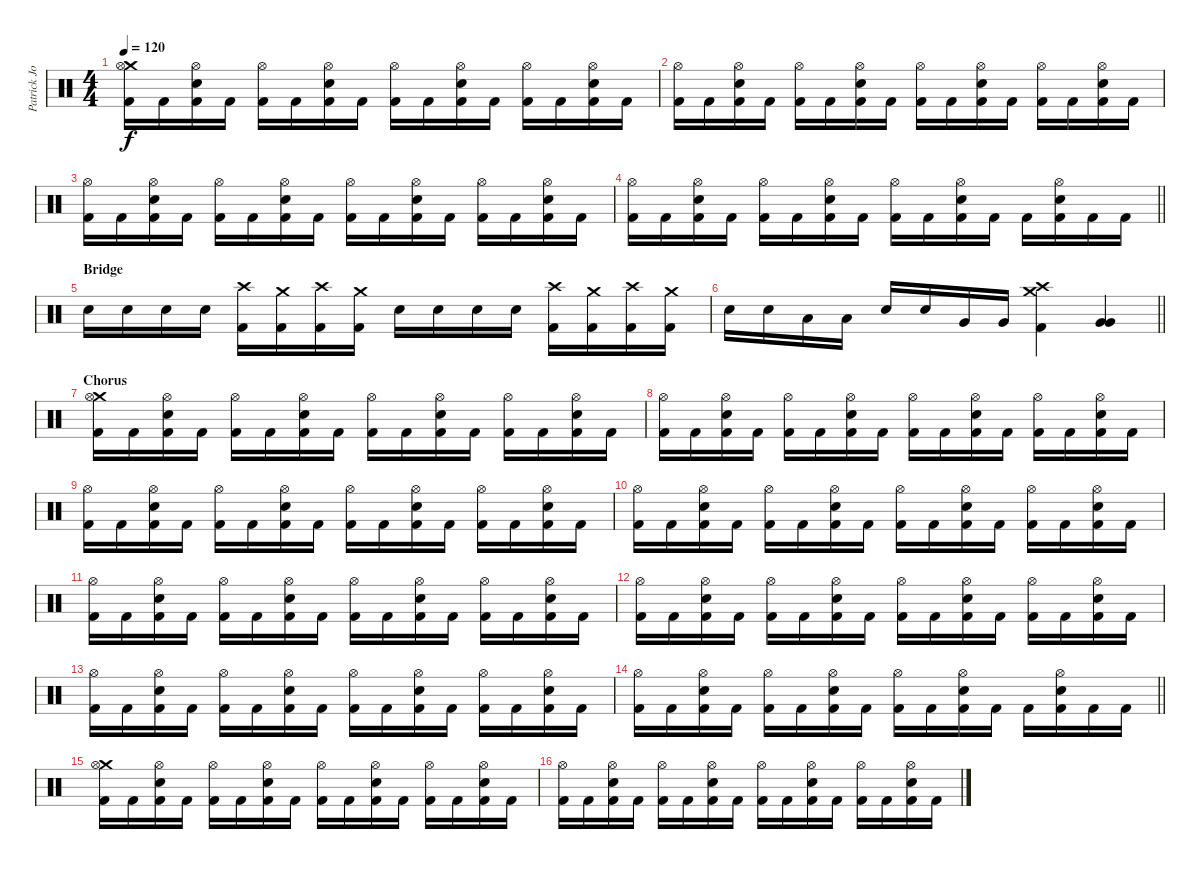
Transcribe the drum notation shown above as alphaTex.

\track ("Patrick Johansson" "Patrick Jo") {instrument percussion}
\staff {score}
\articulation defaults
\ts (4 4)
\tempo 120
\clef neutral
\ks c
("Crash medium (hit)" "Hi-Hat (open)" "Kick (hit) 2").16{dy f} "Kick (hit) 2".16 ("Hi-Hat (open)" "Snare (hit) 2" "Kick (hit) 2").16 "Kick (hit) 2".16 ("Hi-Hat (open)" "Kick (hit) 2").16 "Kick (hit) 2".16 ("Hi-Hat (open)" "Snare (hit) 2" "Kick (hit) 2").16 "Kick (hit) 2".16 ("Hi-Hat (open)" "Kick (hit) 2").16 "Kick (hit) 2".16 ("Hi-Hat (open)" "Snare (hit) 2" "Kick (hit) 2").16 "Kick (hit) 2".16 ("Hi-Hat (open)" "Kick (hit) 2").16 "Kick (hit) 2".16 ("Hi-Hat (open)" "Snare (hit) 2" "Kick (hit) 2").16 "Kick (hit) 2".16 |
("Hi-Hat (open)" "Kick (hit) 2").16 "Kick (hit) 2".16 ("Hi-Hat (open)" "Snare (hit) 2" "Kick (hit) 2").16 "Kick (hit) 2".16 ("Hi-Hat (open)" "Kick (hit) 2").16 "Kick (hit) 2".16 ("Hi-Hat (open)" "Snare (hit) 2" "Kick (hit) 2").16 "Kick (hit) 2".16 ("Hi-Hat (open)" "Kick (hit) 2").16 "Kick (hit) 2".16 ("Hi-Hat (open)" "Snare (hit) 2" "Kick (hit) 2").16 "Kick (hit) 2".16 ("Hi-Hat (open)" "Kick (hit) 2").16 "Kick (hit) 2".16 ("Hi-Hat (open)" "Snare (hit) 2" "Kick (hit) 2").16 "Kick (hit) 2".16 |
("Hi-Hat (open)" "Kick (hit) 2").16 "Kick (hit) 2".16 ("Hi-Hat (open)" "Snare (hit) 2" "Kick (hit) 2").16 "Kick (hit) 2".16 ("Hi-Hat (open)" "Kick (hit) 2").16 "Kick (hit) 2".16 ("Hi-Hat (open)" "Snare (hit) 2" "Kick (hit) 2").16 "Kick (hit) 2".16 ("Hi-Hat (open)" "Kick (hit) 2").16 "Kick (hit) 2".16 ("Hi-Hat (open)" "Snare (hit) 2" "Kick (hit) 2").16 "Kick (hit) 2".16 ("Hi-Hat (open)" "Kick (hit) 2").16 "Kick (hit) 2".16 ("Hi-Hat (open)" "Snare (hit) 2" "Kick (hit) 2").16 "Kick (hit) 2".16 |
\barLineRight lightlight
("Hi-Hat (open)" "Kick (hit) 2").16 "Kick (hit) 2".16 ("Hi-Hat (open)" "Snare (hit) 2" "Kick (hit) 2").16 "Kick (hit) 2".16 ("Hi-Hat (open)" "Kick (hit) 2").16 "Kick (hit) 2".16 ("Hi-Hat (open)" "Snare (hit) 2" "Kick (hit) 2").16 "Kick (hit) 2".16 ("Hi-Hat (open)" "Kick (hit) 2").16 "Kick (hit) 2".16 ("Hi-Hat (open)" "Snare (hit) 2" "Kick (hit) 2").16 "Kick (hit) 2".16 "Kick (hit) 2".16 ("Hi-Hat (open)" "Snare (hit) 2" "Kick (hit) 2").16 "Kick (hit) 2".16 "Kick (hit) 2".16 |
\section ("" "Bridge")
"Snare (hit) 2".16 "Snare (hit) 2".16 "Snare (hit) 2".16 "Snare (hit) 2".16 ("Crash high (hit)" "Kick (hit) 2").16 ("Crash medium (hit)" "Kick (hit) 2").16 ("Crash high (hit)" "Kick (hit) 2").16 ("Crash medium (hit)" "Kick (hit) 2").16 "Snare (hit) 2".16 "Snare (hit) 2".16 "Snare (hit) 2".16 "Snare (hit) 2".16 ("Crash high (hit)" "Kick (hit) 2").16 ("Crash medium (hit)" "Kick (hit) 2").16 ("Crash high (hit)" "Kick (hit) 2").16 ("Crash medium (hit)" "Kick (hit) 2").16 |
\barLineRight lightlight "Snare (hit) 2".16 "Snare (hit) 2".16 "Low Tom (hit)".16 "Low Tom (hit)".16 "Snare (hit) 2".16 "Snare (hit) 2".16 "Very Low Tom (hit)".16 "Very Low Tom (hit)".16
("Crash medium (hit)" "Crash high (hit)" "Kick (hit) 2").4 ("Very Low Tom (hit)" "Very Low Tom (hit)").4 |
\section ("" "Chorus")
("Crash medium (hit)" "Hi-Hat (open)" "Kick (hit) 2").16 "Kick (hit) 2".16 ("Hi-Hat (open)" "Snare (hit) 2" "Kick (hit) 2").16 "Kick (hit) 2".16 ("Hi-Hat (open)" "Kick (hit) 2").16 "Kick (hit) 2".16 ("Hi-Hat (open)" "Snare (hit) 2" "Kick (hit) 2").16 "Kick (hit) 2".16 ("Hi-Hat (open)" "Kick (hit) 2").16 "Kick (hit) 2".16 ("Hi-Hat (open)" "Snare (hit) 2" "Kick (hit) 2").16 "Kick (hit) 2".16 ("Hi-Hat (open)" "Kick (hit) 2").16 "Kick (hit) 2".16 ("Hi-Hat (open)" "Snare (hit) 2" "Kick (hit) 2").16 "Kick (hit) 2".16 |
("Hi-Hat (open)" "Kick (hit) 2").16 "Kick (hit) 2".16 ("Hi-Hat (open)" "Snare (hit) 2" "Kick (hit) 2").16 "Kick (hit) 2".16 ("Hi-Hat (open)" "Kick (hit) 2").16 "Kick (hit) 2".16 ("Hi-Hat (open)" "Snare (hit) 2" "Kick (hit) 2").16 "Kick (hit) 2".16 ("Hi-Hat (open)" "Kick (hit) 2").16 "Kick (hit) 2".16 ("Hi-Hat (open)" "Snare (hit) 2" "Kick (hit) 2").16 "Kick (hit) 2".16 ("Hi-Hat (open)" "Kick (hit) 2").16 "Kick (hit) 2".16 ("Hi-Hat (open)" "Snare (hit) 2" "Kick (hit) 2").16 "Kick (hit) 2".16 |
("Hi-Hat (open)" "Kick (hit) 2").16 "Kick (hit) 2".16 ("Hi-Hat (open)" "Snare (hit) 2" "Kick (hit) 2").16 "Kick (hit) 2".16 ("Hi-Hat (open)" "Kick (hit) 2").16 "Kick (hit) 2".16 ("Hi-Hat (open)" "Snare (hit) 2" "Kick (hit) 2").16 "Kick (hit) 2".16 ("Hi-Hat (open)" "Kick (hit) 2").16 "Kick (hit) 2".16 ("Hi-Hat (open)" "Snare (hit) 2" "Kick (hit) 2").16 "Kick (hit) 2".16 ("Hi-Hat (open)" "Kick (hit) 2").16 "Kick (hit) 2".16 ("Hi-Hat (open)" "Snare (hit) 2" "Kick (hit) 2").16 "Kick (hit) 2".16 |
("Hi-Hat (open)" "Kick (hit) 2").16 "Kick (hit) 2".16 ("Hi-Hat (open)" "Snare (hit) 2" "Kick (hit) 2").16 "Kick (hit) 2".16 ("Hi-Hat (open)" "Kick (hit) 2").16 "Kick (hit) 2".16 ("Hi-Hat (open)" "Snare (hit) 2" "Kick (hit) 2").16 "Kick (hit) 2".16 ("Hi-Hat (open)" "Kick (hit) 2").16 "Kick (hit) 2".16 ("Hi-Hat (open)" "Snare (hit) 2" "Kick (hit) 2").16 "Kick (hit) 2".16 ("Hi-Hat (open)" "Kick (hit) 2").16 "Kick (hit) 2".16 ("Hi-Hat (open)" "Snare (hit) 2" "Kick (hit) 2").16 "Kick (hit) 2".16 |
("Hi-Hat (open)" "Kick (hit) 2").16 "Kick (hit) 2".16 ("Hi-Hat (open)" "Snare (hit) 2" "Kick (hit) 2").16 "Kick (hit) 2".16 ("Hi-Hat (open)" "Kick (hit) 2").16 "Kick (hit) 2".16 ("Hi-Hat (open)" "Snare (hit) 2" "Kick (hit) 2").16 "Kick (hit) 2".16 ("Hi-Hat (open)" "Kick (hit) 2").16 "Kick (hit) 2".16 ("Hi-Hat (open)" "Snare (hit) 2" "Kick (hit) 2").16 "Kick (hit) 2".16 ("Hi-Hat (open)" "Kick (hit) 2").16 "Kick (hit) 2".16 ("Hi-Hat (open)" "Snare (hit) 2" "Kick (hit) 2").16 "Kick (hit) 2".16 |
("Hi-Hat (open)" "Kick (hit) 2").16 "Kick (hit) 2".16 ("Hi-Hat (open)" "Snare (hit) 2" "Kick (hit) 2").16 "Kick (hit) 2".16 ("Hi-Hat (open)" "Kick (hit) 2").16 "Kick (hit) 2".16 ("Hi-Hat (open)" "Snare (hit) 2" "Kick (hit) 2").16 "Kick (hit) 2".16 ("Hi-Hat (open)" "Kick (hit) 2").16 "Kick (hit) 2".16 ("Hi-Hat (open)" "Snare (hit) 2" "Kick (hit) 2").16 "Kick (hit) 2".16 ("Hi-Hat (open)" "Kick (hit) 2").16 "Kick (hit) 2".16 ("Hi-Hat (open)" "Snare (hit) 2" "Kick (hit) 2").16 "Kick (hit) 2".16 |
("Hi-Hat (open)" "Kick (hit) 2").16 "Kick (hit) 2".16 ("Hi-Hat (open)" "Snare (hit) 2" "Kick (hit) 2").16 "Kick (hit) 2".16 ("Hi-Hat (open)" "Kick (hit) 2").16 "Kick (hit) 2".16 ("Hi-Hat (open)" "Snare (hit) 2" "Kick (hit) 2").16 "Kick (hit) 2".16 ("Hi-Hat (open)" "Kick (hit) 2").16 "Kick (hit) 2".16 ("Hi-Hat (open)" "Snare (hit) 2" "Kick (hit) 2").16 "Kick (hit) 2".16 ("Hi-Hat (open)" "Kick (hit) 2").16 "Kick (hit) 2".16 ("Hi-Hat (open)" "Snare (hit) 2" "Kick (hit) 2").16 "Kick (hit) 2".16 |
\barLineRight lightlight
("Hi-Hat (open)" "Kick (hit) 2").16 "Kick (hit) 2".16 ("Hi-Hat (open)" "Snare (hit) 2" "Kick (hit) 2").16 "Kick (hit) 2".16 ("Hi-Hat (open)" "Kick (hit) 2").16 "Kick (hit) 2".16 ("Hi-Hat (open)" "Snare (hit) 2" "Kick (hit) 2").16 "Kick (hit) 2".16 ("Hi-Hat (open)" "Kick (hit) 2").16 "Kick (hit) 2".16 ("Hi-Hat (open)" "Snare (hit) 2" "Kick (hit) 2").16 "Kick (hit) 2".16 "Kick (hit) 2".16 ("Hi-Hat (open)" "Snare (hit) 2" "Kick (hit) 2").16 "Kick (hit) 2".16 "Kick (hit) 2".16 |
("Crash medium (hit)" "Hi-Hat (open)" "Kick (hit) 2").16 "Kick (hit) 2".16 ("Hi-Hat (open)" "Snare (hit) 2" "Kick (hit) 2").16 "Kick (hit) 2".16 ("Hi-Hat (open)" "Kick (hit) 2").16 "Kick (hit) 2".16 ("Hi-Hat (open)" "Snare (hit) 2" "Kick (hit) 2").16 "Kick (hit) 2".16 ("Hi-Hat (open)" "Kick (hit) 2").16 "Kick (hit) 2".16 ("Hi-Hat (open)" "Snare (hit) 2" "Kick (hit) 2").16 "Kick (hit) 2".16 ("Hi-Hat (open)" "Kick (hit) 2").16 "Kick (hit) 2".16 ("Hi-Hat (open)" "Snare (hit) 2" "Kick (hit) 2").16 "Kick (hit) 2".16 |
("Hi-Hat (open)" "Kick (hit) 2").16 "Kick (hit) 2".16 ("Hi-Hat (open)" "Snare (hit) 2" "Kick (hit) 2").16 "Kick (hit) 2".16 ("Hi-Hat (open)" "Kick (hit) 2").16 "Kick (hit) 2".16 ("Hi-Hat (open)" "Snare (hit) 2" "Kick (hit) 2").16 "Kick (hit) 2".16 ("Hi-Hat (open)" "Kick (hit) 2").16 "Kick (hit) 2".16 ("Hi-Hat (open)" "Snare (hit) 2" "Kick (hit) 2").16 "Kick (hit) 2".16 ("Hi-Hat (open)" "Kick (hit) 2").16 "Kick (hit) 2".16 ("Hi-Hat (open)" "Snare (hit) 2" "Kick (hit) 2").16 "Kick (hit) 2".16
